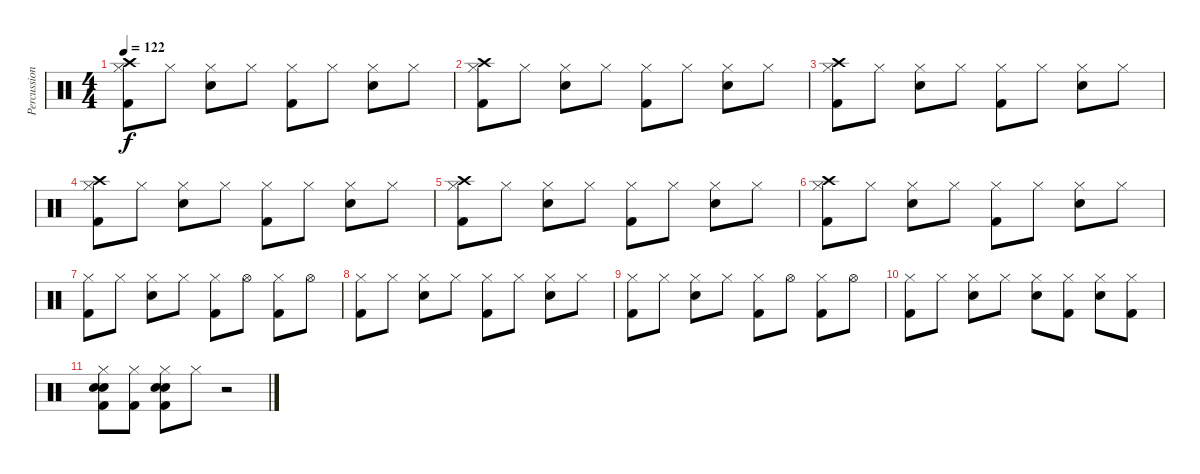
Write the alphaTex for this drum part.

\track ("Percussion" "Percussion") {instrument percussion}
\staff {score}
\articulation defaults
\ts (4 4)
\tempo 122
\clef neutral
\ks c
("Hi-Hat (closed)" "Crash high (hit)" "Kick (hit) 2").8{dy f} "Hi-Hat (closed)".8 ("Hi-Hat (closed)" "Snare (hit) 2").8 "Hi-Hat (closed)".8 ("Hi-Hat (closed)" "Kick (hit) 2").8 "Hi-Hat (closed)".8 ("Hi-Hat (closed)" "Snare (hit) 2").8 "Hi-Hat (closed)".8 |
("Hi-Hat (closed)" "Crash high (hit)" "Kick (hit) 2").8 "Hi-Hat (closed)".8 ("Hi-Hat (closed)" "Snare (hit) 2").8 "Hi-Hat (closed)".8 ("Hi-Hat (closed)" "Kick (hit) 2").8 "Hi-Hat (closed)".8 ("Hi-Hat (closed)" "Snare (hit) 2").8 "Hi-Hat (closed)".8 |
("Hi-Hat (closed)" "Crash high (hit)" "Kick (hit) 2").8 "Hi-Hat (closed)".8 ("Hi-Hat (closed)" "Snare (hit) 2").8 "Hi-Hat (closed)".8 ("Hi-Hat (closed)" "Kick (hit) 2").8 "Hi-Hat (closed)".8 ("Hi-Hat (closed)" "Snare (hit) 2").8 "Hi-Hat (closed)".8 |
("Hi-Hat (closed)" "Crash high (hit)" "Kick (hit) 2").8 "Hi-Hat (closed)".8 ("Hi-Hat (closed)" "Snare (hit) 2").8 "Hi-Hat (closed)".8 ("Hi-Hat (closed)" "Kick (hit) 2").8 "Hi-Hat (closed)".8 ("Hi-Hat (closed)" "Snare (hit) 2").8 "Hi-Hat (closed)".8 |
("Hi-Hat (closed)" "Crash high (hit)" "Kick (hit) 2").8 "Hi-Hat (closed)".8 ("Hi-Hat (closed)" "Snare (hit) 2").8 "Hi-Hat (closed)".8 ("Hi-Hat (closed)" "Kick (hit) 2").8 "Hi-Hat (closed)".8 ("Hi-Hat (closed)" "Snare (hit) 2").8 "Hi-Hat (closed)".8 |
("Hi-Hat (closed)" "Crash high (hit)" "Kick (hit) 2").8 "Hi-Hat (closed)".8 ("Hi-Hat (closed)" "Snare (hit) 2").8 "Hi-Hat (closed)".8 ("Hi-Hat (closed)" "Kick (hit) 2").8 "Hi-Hat (closed)".8 ("Hi-Hat (closed)" "Snare (hit) 2").8 "Hi-Hat (closed)".8 |
("Hi-Hat (closed)" "Kick (hit) 2").8 "Hi-Hat (closed)".8 ("Hi-Hat (closed)" "Snare (hit) 2").8 "Hi-Hat (closed)".8 ("Hi-Hat (closed)" "Kick (hit) 2").8 "Hi-Hat (open)".8 ("Hi-Hat (closed)" "Kick (hit) 2").8 "Hi-Hat (open)".8 |
("Hi-Hat (closed)" "Kick (hit) 2").8 "Hi-Hat (closed)".8 ("Hi-Hat (closed)" "Snare (hit) 2").8 "Hi-Hat (closed)".8 ("Hi-Hat (closed)" "Kick (hit) 2").8 "Hi-Hat (closed)".8 ("Hi-Hat (closed)" "Snare (hit) 2").8 "Hi-Hat (closed)".8 |
("Hi-Hat (closed)" "Kick (hit) 2").8 "Hi-Hat (closed)".8 ("Hi-Hat (closed)" "Snare (hit) 2").8 "Hi-Hat (closed)".8 ("Hi-Hat (closed)" "Kick (hit) 2").8 "Hi-Hat (open)".8 ("Hi-Hat (closed)" "Kick (hit) 2").8 "Hi-Hat (open)".8 |
("Hi-Hat (closed)" "Kick (hit) 2").8 "Hi-Hat (closed)".8 ("Hi-Hat (closed)" "Snare (hit) 2").8 "Hi-Hat (closed)".8 ("Hi-Hat (closed)" "Snare (hit) 2").8 ("Hi-Hat (closed)" "Kick (hit) 2").8 ("Hi-Hat (closed)" "Snare (hit) 2").8 ("Hi-Hat (closed)" "Kick (hit) 2").8 |
("Hi-Hat (closed)" "Kick (hit) 2" "Snare (hit) 2" "Snare (hit) 2").8 ("Hi-Hat (closed)" "Kick (hit) 2").8 ("Hi-Hat (closed)" "Kick (hit) 2" "Snare (hit) 2" "Snare (hit) 2").8 "Hi-Hat (closed)".8 r.2
